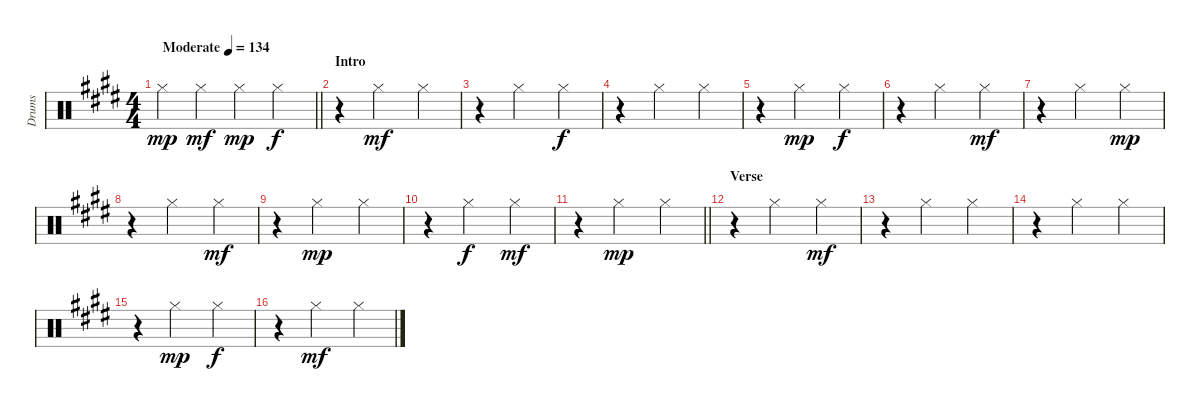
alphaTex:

\track ("Drums" "Drums") {instrument percussion}
\staff {score}
\articulation defaults
\ts (4 4)
\tempo (134 "Moderate")
\clef neutral
\barLineRight lightlight
\ks e "Hi-Hat (closed)".4{dy mp} "Hi-Hat (closed)".4{dy mf} "Hi-Hat (closed)".4{dy mp} "Hi-Hat (closed)".4{dy f}
|
\section ("" "Intro")
r.4 "Hi-Hat (closed)".2{dy mf} "Hi-Hat (closed)".4 |
r.4 "Hi-Hat (closed)".2 "Hi-Hat (closed)".4{dy f} |
r.4 "Hi-Hat (closed)".2 "Hi-Hat (closed)".4 |
r.4 "Hi-Hat (closed)".2{dy mp} "Hi-Hat (closed)".4{dy f} |
r.4 "Hi-Hat (closed)".2 "Hi-Hat (closed)".4{dy mf} |
r.4 "Hi-Hat (closed)".2 "Hi-Hat (closed)".4{dy mp} |
r.4 "Hi-Hat (closed)".2 "Hi-Hat (closed)".4{dy mf} |
r.4 "Hi-Hat (closed)".2{dy mp} "Hi-Hat (closed)".4 |
r.4 "Hi-Hat (closed)".2{dy f} "Hi-Hat (closed)".4{dy mf} |
\barLineRight lightlight
r.4 "Hi-Hat (closed)".2{dy mp} "Hi-Hat (closed)".4 |
\section ("" "Verse")
r.4 "Hi-Hat (closed)".2 "Hi-Hat (closed)".4{dy mf} |
r.4 "Hi-Hat (closed)".2 "Hi-Hat (closed)".4 |
r.4 "Hi-Hat (closed)".2 "Hi-Hat (closed)".4 |
r.4 "Hi-Hat (closed)".2{dy mp} "Hi-Hat (closed)".4{dy f} |
r.4 "Hi-Hat (closed)".2{dy mf} "Hi-Hat (closed)".4
